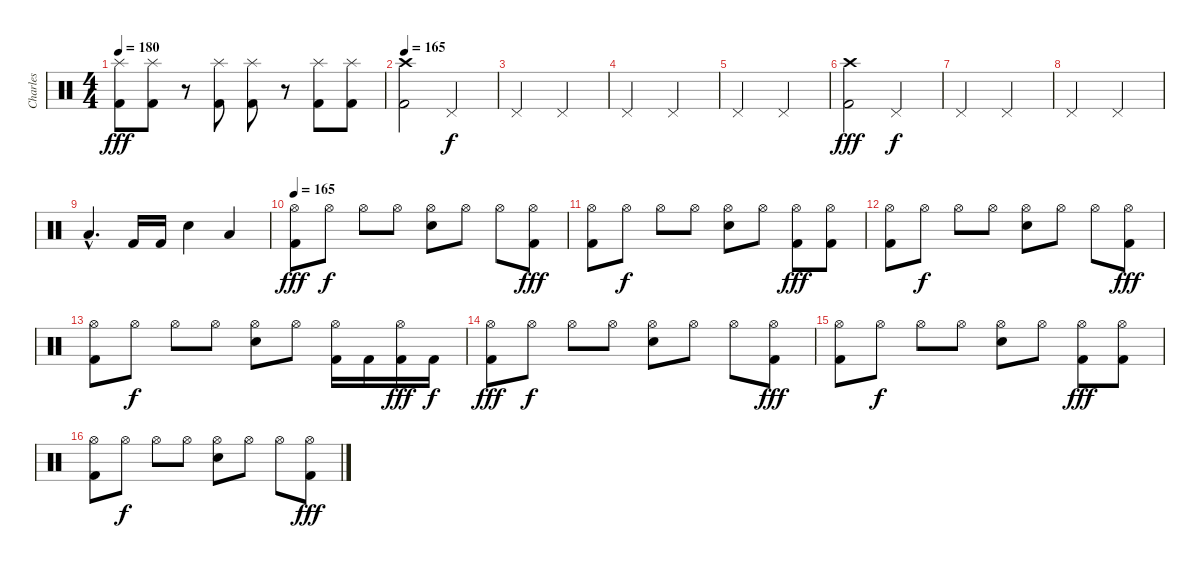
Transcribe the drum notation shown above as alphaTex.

\track ("Charles" "Charles") {instrument percussion}
\staff {score}
\articulation defaults
\ts (4 4)
\tempo 180
\clef neutral
\ks c
("Splash (hit)" "Kick (hit) 2").8{dy fff} ("Splash (hit)" "Kick (hit) 2").8 r.8 ("Splash (hit)" "Kick (hit) 2").8 ("Splash (hit)" "Kick (hit) 2").8 r.8 ("Splash (hit)" "Kick (hit) 2").8 ("Splash (hit)" "Kick (hit) 2").8 |
\tempo 165
("Crash high (hit)" "Kick (hit) 2").2 "Pedal Hi-Hat (hit)".2{dy f} |
"Pedal Hi-Hat (hit)".2 "Pedal Hi-Hat (hit)".2 |
"Pedal Hi-Hat (hit)".2 "Pedal Hi-Hat (hit)".2 |
"Pedal Hi-Hat (hit)".2 "Pedal Hi-Hat (hit)".2 |
("Crash high (hit)" "Kick (hit) 2").2{dy fff} "Pedal Hi-Hat (hit)".2{dy f} |
"Pedal Hi-Hat (hit)".2 "Pedal Hi-Hat (hit)".2 |
"Pedal Hi-Hat (hit)".2 "Pedal Hi-Hat (hit)".2 |
"Low Tom (hit)"{hac}.4{d} "Kick (hit) 2".16 "Kick (hit) 2".16 "Electric Snare (hit)".4 "Low Tom (hit)".4 |
\tempo 165
("Hi-Hat (open)" "Kick (hit) 2").8{dy fff} "Hi-Hat (open)".8{dy f} "Hi-Hat (open)".8 "Hi-Hat (open)".8 ("Electric Snare (hit)" "Hi-Hat (open)").8 "Hi-Hat (open)".8 "Hi-Hat (open)".8 ("Hi-Hat (open)" "Kick (hit) 2").8{dy fff} |
("Hi-Hat (open)" "Kick (hit) 2").8 "Hi-Hat (open)".8{dy f} "Hi-Hat (open)".8 "Hi-Hat (open)".8 ("Electric Snare (hit)" "Hi-Hat (open)").8 "Hi-Hat (open)".8 ("Hi-Hat (open)" "Kick (hit) 2").8{dy fff} ("Hi-Hat (open)" "Kick (hit) 2").8 |
("Hi-Hat (open)" "Kick (hit) 2").8 "Hi-Hat (open)".8{dy f} "Hi-Hat (open)".8 "Hi-Hat (open)".8 ("Electric Snare (hit)" "Hi-Hat (open)").8 "Hi-Hat (open)".8 "Hi-Hat (open)".8 ("Hi-Hat (open)" "Kick (hit) 2").8{dy fff} |
("Hi-Hat (open)" "Kick (hit) 2").8 "Hi-Hat (open)".8{dy f} "Hi-Hat (open)".8 "Hi-Hat (open)".8 ("Electric Snare (hit)" "Hi-Hat (open)").8 "Hi-Hat (open)".8 ("Hi-Hat (open)" "Kick (hit) 2").16 "Kick (hit) 2".16 ("Hi-Hat (open)" "Kick (hit) 2").16{dy fff} "Kick (hit) 2".16{dy f} |
("Hi-Hat (open)" "Kick (hit) 2").8{dy fff} "Hi-Hat (open)".8{dy f} "Hi-Hat (open)".8 "Hi-Hat (open)".8 ("Electric Snare (hit)" "Hi-Hat (open)").8 "Hi-Hat (open)".8 "Hi-Hat (open)".8 ("Hi-Hat (open)" "Kick (hit) 2").8{dy fff} |
("Hi-Hat (open)" "Kick (hit) 2").8 "Hi-Hat (open)".8{dy f} "Hi-Hat (open)".8 "Hi-Hat (open)".8 ("Electric Snare (hit)" "Hi-Hat (open)").8 "Hi-Hat (open)".8 ("Hi-Hat (open)" "Kick (hit) 2").8{dy fff} ("Hi-Hat (open)" "Kick (hit) 2").8 |
("Hi-Hat (open)" "Kick (hit) 2").8 "Hi-Hat (open)".8{dy f} "Hi-Hat (open)".8 "Hi-Hat (open)".8 ("Electric Snare (hit)" "Hi-Hat (open)").8 "Hi-Hat (open)".8 "Hi-Hat (open)".8 ("Hi-Hat (open)" "Kick (hit) 2").8{dy fff}
